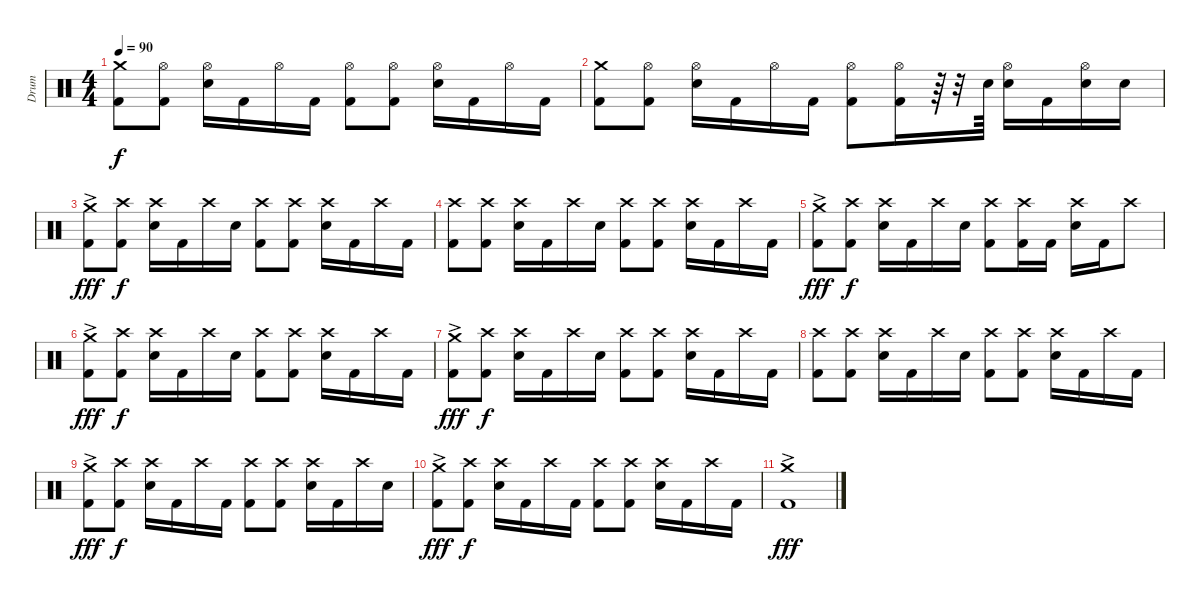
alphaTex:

\track ("Drum" "Drum") {instrument percussion}
\staff {score}
\articulation defaults
\ts (4 4)
\tempo 90
\clef neutral
\ks c
("Crash medium (hit)" "Kick (hit) 2").8{dy f} ("Hi-Hat (open)" "Kick (hit) 2").8 ("Hi-Hat (open)" "Snare (hit) 2").16 "Kick (hit) 2".16 "Hi-Hat (open)".16 "Kick (hit) 2".16 ("Hi-Hat (open)" "Kick (hit) 2").8 ("Hi-Hat (open)" "Kick (hit) 2").8 ("Hi-Hat (open)" "Snare (hit) 2").16 "Kick (hit) 2".16 "Hi-Hat (open)".16 "Kick (hit) 2".16 |
("Crash medium (hit)" "Kick (hit) 2").8 ("Hi-Hat (open)" "Kick (hit) 2").8 ("Hi-Hat (open)" "Snare (hit) 2").16 "Kick (hit) 2".16 "Hi-Hat (open)".16 "Kick (hit) 2".16 ("Hi-Hat (open)" "Kick (hit) 2").8 ("Hi-Hat (open)" "Kick (hit) 2").16 r.64 r.32 "Snare (hit) 2".64 ("Hi-Hat (open)" "Snare (hit) 2").16 "Kick (hit) 2".16 ("Hi-Hat (open)" "Snare (hit) 2").16 "Snare (hit) 2".16 |
("Crash medium (hit)"{ac} "Kick (hit) 2").8{dy fff} ("Crash high (hit)" "Kick (hit) 2").8{dy f} ("Crash high (hit)" "Snare (hit) 2").16 "Kick (hit) 2".16 "Crash high (hit)".16 "Snare (hit) 2".16 ("Crash high (hit)" "Kick (hit) 2").8 ("Crash high (hit)" "Kick (hit) 2").8 ("Crash high (hit)" "Snare (hit) 2").16 "Kick (hit) 2".16 "Crash high (hit)".16 "Kick (hit) 2".16 |
("Crash high (hit)" "Kick (hit) 2").8 ("Crash high (hit)" "Kick (hit) 2").8 ("Crash high (hit)" "Snare (hit) 2").16 "Kick (hit) 2".16 "Crash high (hit)".16 "Snare (hit) 2".16 ("Crash high (hit)" "Kick (hit) 2").8 ("Crash high (hit)" "Kick (hit) 2").8 ("Crash high (hit)" "Snare (hit) 2").16 "Kick (hit) 2".16 "Crash high (hit)".16 "Kick (hit) 2".16 |
("Crash medium (hit)"{ac} "Kick (hit) 2").8{dy fff} ("Crash high (hit)" "Kick (hit) 2").8{dy f} ("Crash high (hit)" "Snare (hit) 2").16 "Kick (hit) 2".16 "Crash high (hit)".16 "Snare (hit) 2".16 ("Crash high (hit)" "Kick (hit) 2").8 ("Crash high (hit)" "Kick (hit) 2").16 "Kick (hit) 2".16 ("Crash high (hit)" "Snare (hit) 2").16 "Kick (hit) 2".16 "Crash high (hit)".8 |
("Crash medium (hit)"{ac} "Kick (hit) 2").8{dy fff} ("Crash high (hit)" "Kick (hit) 2").8{dy f} ("Crash high (hit)" "Snare (hit) 2").16 "Kick (hit) 2".16 "Crash high (hit)".16 "Snare (hit) 2".16 ("Crash high (hit)" "Kick (hit) 2").8 ("Crash high (hit)" "Kick (hit) 2").8 ("Crash high (hit)" "Snare (hit) 2").16 "Kick (hit) 2".16 "Crash high (hit)".16 "Kick (hit) 2".16 |
("Crash medium (hit)"{ac} "Kick (hit) 2").8{dy fff} ("Crash high (hit)" "Kick (hit) 2").8{dy f} ("Crash high (hit)" "Snare (hit) 2").16 "Kick (hit) 2".16 "Crash high (hit)".16 "Snare (hit) 2".16 ("Crash high (hit)" "Kick (hit) 2").8 ("Crash high (hit)" "Kick (hit) 2").8 ("Crash high (hit)" "Snare (hit) 2").16 "Kick (hit) 2".16 "Crash high (hit)".16 "Kick (hit) 2".16 |
("Crash high (hit)" "Kick (hit) 2").8 ("Crash high (hit)" "Kick (hit) 2").8 ("Crash high (hit)" "Snare (hit) 2").16 "Kick (hit) 2".16 "Crash high (hit)".16 "Snare (hit) 2".16 ("Crash high (hit)" "Kick (hit) 2").8 ("Crash high (hit)" "Kick (hit) 2").8 ("Crash high (hit)" "Snare (hit) 2").16 "Kick (hit) 2".16 "Crash high (hit)".16 "Kick (hit) 2".16 |
("Crash medium (hit)"{ac} "Kick (hit) 2").8{dy fff} ("Crash high (hit)" "Kick (hit) 2").8{dy f} ("Crash high (hit)" "Snare (hit) 2").16 "Kick (hit) 2".16 "Crash high (hit)".16 "Kick (hit) 2".16 ("Crash high (hit)" "Kick (hit) 2").8 ("Crash high (hit)" "Kick (hit) 2").8 ("Crash high (hit)" "Snare (hit) 2").16 "Kick (hit) 2".16 "Crash high (hit)".16 "Snare (hit) 2".16 |
("Crash medium (hit)"{ac} "Kick (hit) 2").8{dy fff} ("Crash high (hit)" "Kick (hit) 2").8{dy f} ("Crash high (hit)" "Snare (hit) 2").16 "Kick (hit) 2".16 "Crash high (hit)".16 "Kick (hit) 2".16 ("Crash high (hit)" "Kick (hit) 2").8 ("Crash high (hit)" "Kick (hit) 2").8 ("Crash high (hit)" "Snare (hit) 2").16 "Kick (hit) 2".16 "Crash high (hit)".16 "Kick (hit) 2".16 |
("Crash medium (hit)"{ac} "Kick (hit) 2").1{dy fff}
